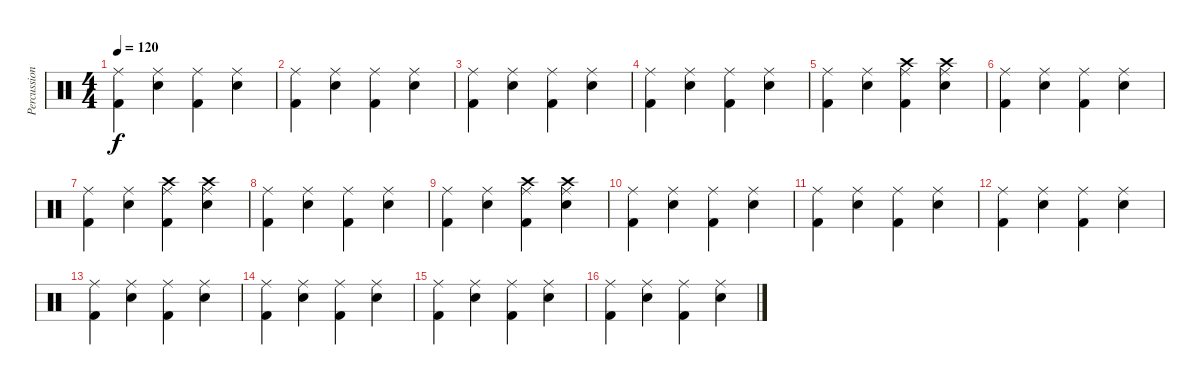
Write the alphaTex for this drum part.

\track ("Percussions" "Percussion") {instrument percussion}
\staff {score}
\articulation defaults
\ts (4 4)
\tempo 120
\clef neutral
\ks c
("Ride (middle)" "Kick (hit) 2").4{dy f} ("Ride (middle)" "Electric Snare (hit)").4 ("Ride (middle)" "Kick (hit) 2").4 ("Ride (middle)" "Electric Snare (hit)").4 |
("Ride (middle)" "Kick (hit) 2").4 ("Ride (middle)" "Electric Snare (hit)").4 ("Ride (middle)" "Kick (hit) 2").4 ("Ride (middle)" "Electric Snare (hit)").4 |
("Ride (middle)" "Kick (hit) 2").4 ("Ride (middle)" "Electric Snare (hit)").4 ("Ride (middle)" "Kick (hit) 2").4 ("Ride (middle)" "Electric Snare (hit)").4 |
("Ride (middle)" "Kick (hit) 2").4 ("Ride (middle)" "Electric Snare (hit)").4 ("Ride (middle)" "Kick (hit) 2").4 ("Ride (middle)" "Electric Snare (hit)").4 |
("Ride (middle)" "Kick (hit) 2").4 ("Ride (middle)" "Electric Snare (hit)").4 ("Ride (middle)" "Kick (hit) 2" "Crash high (hit)").4 ("Ride (middle)" "Electric Snare (hit)" "Crash high (hit)").4 |
("Ride (middle)" "Kick (hit) 2").4 ("Ride (middle)" "Electric Snare (hit)").4 ("Ride (middle)" "Kick (hit) 2").4 ("Ride (middle)" "Electric Snare (hit)").4 |
("Ride (middle)" "Kick (hit) 2").4 ("Ride (middle)" "Electric Snare (hit)").4 ("Ride (middle)" "Kick (hit) 2" "Crash high (hit)").4 ("Ride (middle)" "Electric Snare (hit)" "Crash high (hit)").4 |
("Ride (middle)" "Kick (hit) 2").4 ("Ride (middle)" "Electric Snare (hit)").4 ("Ride (middle)" "Kick (hit) 2").4 ("Ride (middle)" "Electric Snare (hit)").4 |
("Ride (middle)" "Kick (hit) 2").4 ("Ride (middle)" "Electric Snare (hit)").4 ("Ride (middle)" "Kick (hit) 2" "Crash high (hit)").4 ("Ride (middle)" "Electric Snare (hit)" "Crash high (hit)").4 |
("Ride (middle)" "Kick (hit) 2").4 ("Ride (middle)" "Electric Snare (hit)").4 ("Ride (middle)" "Kick (hit) 2").4 ("Ride (middle)" "Electric Snare (hit)").4 |
("Ride (middle)" "Kick (hit) 2").4 ("Ride (middle)" "Electric Snare (hit)").4 ("Ride (middle)" "Kick (hit) 2").4 ("Ride (middle)" "Electric Snare (hit)").4 |
("Ride (middle)" "Kick (hit) 2").4 ("Ride (middle)" "Electric Snare (hit)").4 ("Ride (middle)" "Kick (hit) 2").4 ("Ride (middle)" "Electric Snare (hit)").4 |
("Ride (middle)" "Kick (hit) 2").4 ("Ride (middle)" "Electric Snare (hit)").4 ("Ride (middle)" "Kick (hit) 2").4 ("Ride (middle)" "Electric Snare (hit)").4 |
("Ride (middle)" "Kick (hit) 2").4 ("Ride (middle)" "Electric Snare (hit)").4 ("Ride (middle)" "Kick (hit) 2").4 ("Ride (middle)" "Electric Snare (hit)").4 |
("Ride (middle)" "Kick (hit) 2").4 ("Ride (middle)" "Electric Snare (hit)").4 ("Ride (middle)" "Kick (hit) 2").4 ("Ride (middle)" "Electric Snare (hit)").4 |
("Ride (middle)" "Kick (hit) 2").4 ("Ride (middle)" "Electric Snare (hit)").4 ("Ride (middle)" "Kick (hit) 2").4 ("Ride (middle)" "Electric Snare (hit)").4
